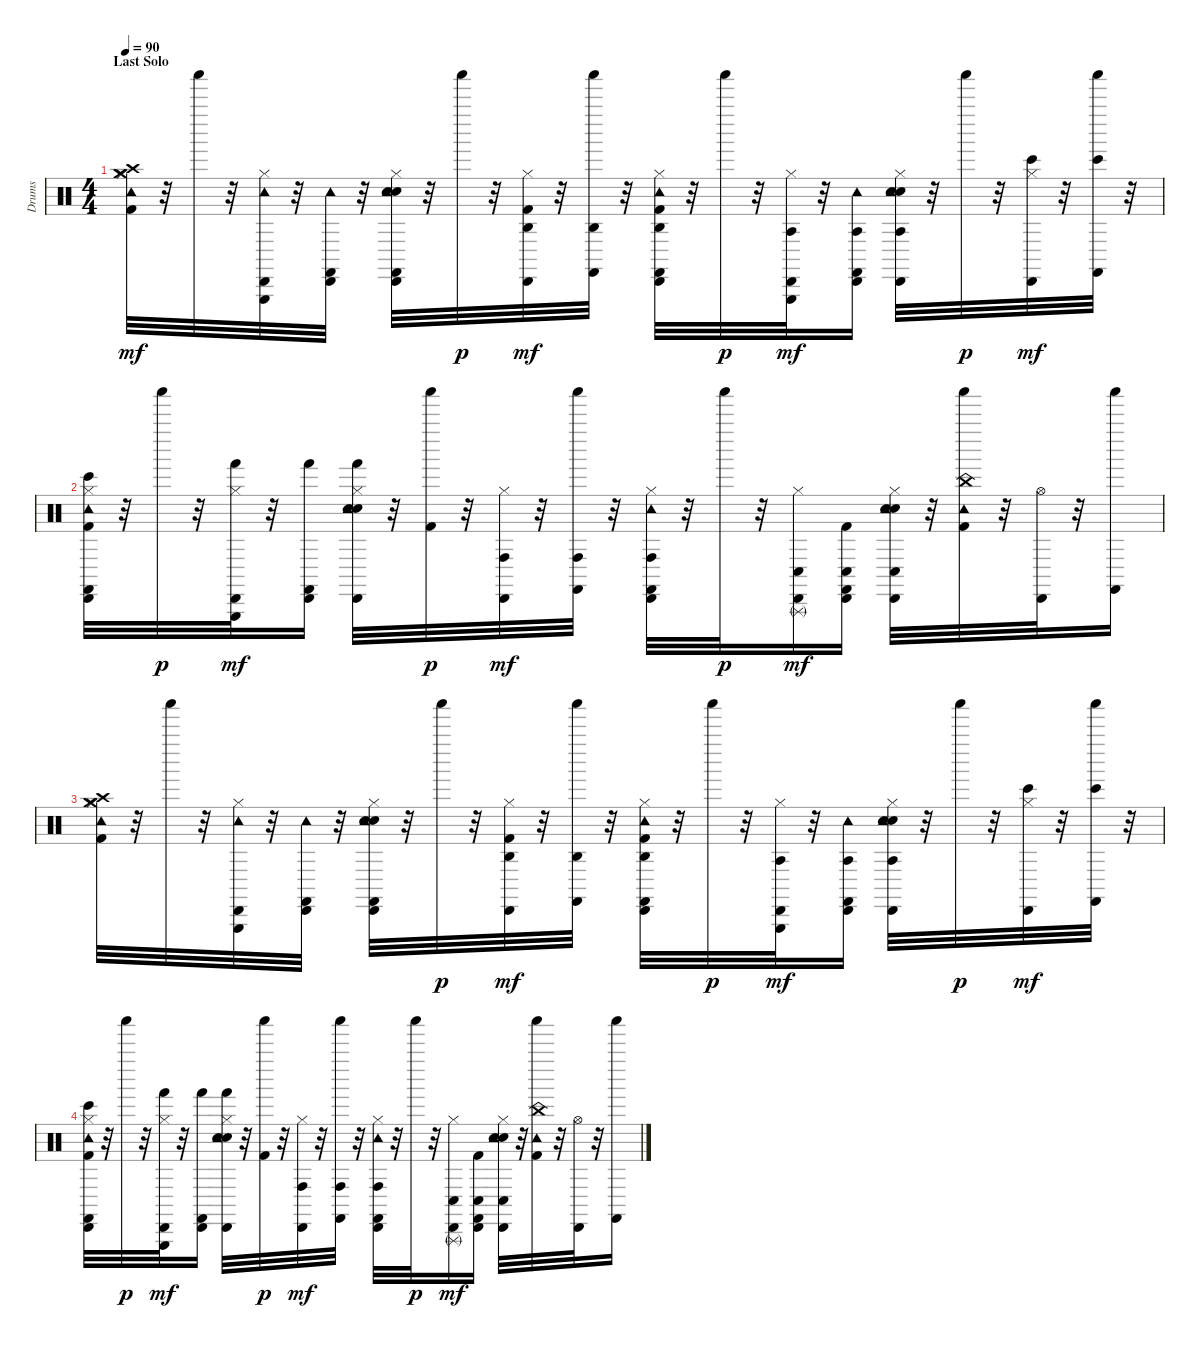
\track ("Drums" "Drums") {instrument percussion}
\staff {score}
\articulation defaults
\ts (4 4)
\section ("" "Last Solo")
\tempo 90
\clef neutral
\ks c
("Hi-Hat (closed)" "Kick (hit) 2" "Tambourine (hit)" "Crash high (hit)" "Crash medium (hit)" "Hi-Hat (closed)").32{dy mf} r.32 "Shaker (hit)".32 r.32 ("Hi-Hat (closed)" "Tambourine (hit)" "Cabasa (hit)" "Triangle (hit)").32 r.32 ("Tambourine (hit)" "Cabasa (hit)" "Castanets (hit)").32 r.32 ("Electric Snare (hit)" "Hi-Hat (closed)" "Snare (hit) 2" "Tambourine (hit)" "Cabasa (hit)" "Castanets (hit)").32 r.32 "Shaker (hit)".32{dy p} r.32 ("Hi-Hat (closed)" "Kick (hit) 2" "Agogo high (hit)" "Cabasa (hit)").32{dy mf} r.32 ("Agogo high (hit)" "Shaker (hit)" "Castanets (hit)").32 r.32 ("Hi-Hat (closed)" "Kick (hit) 2" "Agogo high (hit)" "Cabasa (hit)" "Tambourine (hit)" "Castanets (hit)").32 r.32 "Shaker (hit)".32{dy p} r.32 ("Hi-Hat (closed)" "Agogo tow (hit)" "Cabasa (hit)" "Triangle (hit)").32{dy mf} r.32 ("Agogo tow (hit)" "Cabasa (hit)" "Tambourine (hit)" "Castanets (hit)").16 ("Electric Snare (hit)" "Hi-Hat (closed)" "Snare (hit) 2" "Agogo tow (hit)" "Tambourine (hit)" "Cabasa (hit)").32 r.32 "Shaker (hit)".32{dy p} r.32 ("Hi-Hat (closed)" "Bongo High (hit)" "Cabasa (hit)").32{dy mf} r.32 ("Bongo High (hit)" "Shaker (hit)" "Castanets (hit)").32 r.32 |
("Hi-Hat (closed)" "Kick (hit) 2" "Bongo High (hit)" "Cabasa (hit)" "Tambourine (hit)" "Castanets (hit)").32 r.32 "Shaker (hit)".32{dy p} r.32 ("Hi-Hat (closed)" "Hand (hit)" "Cabasa (hit)" "Triangle (hit)").32{dy mf} r.32 ("Hand (hit)" "Cabasa (hit)" "Castanets (hit)").16 ("Electric Snare (hit)" "Hi-Hat (closed)" "Snare (hit) 2" "Hand (hit)" "Cabasa (hit)" "Tambourine (hit)").32 r.32 ("Kick (hit) 2" "Shaker (hit)").32{dy p} r.32 ("Hi-Hat (closed)" "Conga high (hit)" "Cabasa (hit)").32{dy mf} r.32 ("Conga high (hit)" "Shaker (hit)" "Castanets (hit)").32 r.32 ("Hi-Hat (closed)" "Conga high (hit)" "Cabasa (hit)" "Tambourine (hit)" "Castanets (hit)").32 r.32 "Shaker (hit)".32{dy p} r.32 ("Hi-Hat (closed)" "Conga low (hit)" "Cabasa (hit)" "Triangle (rnute)").16{dy mf} ("Kick (hit) 2" "Conga low (hit)" "Cabasa (hit)" "Castanets (hit)").16 ("Electric Snare (hit)" "Hi-Hat (closed)" "Snare (hit) 2" "Conga low (hit)" "Cabasa (hit)" "Tambourine (hit)").32 r.32 ("Kick (hit) 2" "Tambourine (hit)" "Shaker (hit)" "China (hit)").32 r.32 ("Hi-Hat (open)" "Cabasa (hit)").32 r.32 ("Shaker (hit)" "Castanets (hit)").16 |
("Hi-Hat (closed)" "Kick (hit) 2" "Tambourine (hit)" "Crash high (hit)" "Crash medium (hit)" "Hi-Hat (closed)").32 r.32 "Shaker (hit)".32 r.32 ("Hi-Hat (closed)" "Tambourine (hit)" "Cabasa (hit)" "Triangle (hit)").32 r.32 ("Tambourine (hit)" "Cabasa (hit)" "Castanets (hit)").32 r.32 ("Electric Snare (hit)" "Hi-Hat (closed)" "Snare (hit) 2" "Tambourine (hit)" "Cabasa (hit)" "Castanets (hit)").32 r.32 "Shaker (hit)".32{dy p} r.32 ("Hi-Hat (closed)" "Kick (hit) 2" "Agogo high (hit)" "Cabasa (hit)").32{dy mf} r.32 ("Agogo high (hit)" "Shaker (hit)" "Castanets (hit)").32 r.32 ("Hi-Hat (closed)" "Kick (hit) 2" "Agogo high (hit)" "Cabasa (hit)" "Tambourine (hit)" "Castanets (hit)").32 r.32 "Shaker (hit)".32{dy p} r.32 ("Hi-Hat (closed)" "Agogo tow (hit)" "Cabasa (hit)" "Triangle (hit)").32{dy mf} r.32 ("Agogo tow (hit)" "Cabasa (hit)" "Tambourine (hit)" "Castanets (hit)").16 ("Electric Snare (hit)" "Hi-Hat (closed)" "Snare (hit) 2" "Agogo tow (hit)" "Tambourine (hit)" "Cabasa (hit)").32 r.32 "Shaker (hit)".32{dy p} r.32 ("Hi-Hat (closed)" "Bongo High (hit)" "Cabasa (hit)").32{dy mf} r.32 ("Bongo High (hit)" "Shaker (hit)" "Castanets (hit)").32 r.32 |
("Hi-Hat (closed)" "Kick (hit) 2" "Bongo High (hit)" "Cabasa (hit)" "Tambourine (hit)" "Castanets (hit)").32 r.32 "Shaker (hit)".32{dy p} r.32 ("Hi-Hat (closed)" "Hand (hit)" "Cabasa (hit)" "Triangle (hit)").32{dy mf} r.32 ("Hand (hit)" "Cabasa (hit)" "Castanets (hit)").16 ("Electric Snare (hit)" "Hi-Hat (closed)" "Snare (hit) 2" "Hand (hit)" "Cabasa (hit)" "Tambourine (hit)").32 r.32 ("Kick (hit) 2" "Shaker (hit)").32{dy p} r.32 ("Hi-Hat (closed)" "Conga high (hit)" "Cabasa (hit)").32{dy mf} r.32 ("Conga high (hit)" "Shaker (hit)" "Castanets (hit)").32 r.32 ("Hi-Hat (closed)" "Conga high (hit)" "Cabasa (hit)" "Tambourine (hit)" "Castanets (hit)").32 r.32 "Shaker (hit)".32{dy p} r.32 ("Hi-Hat (closed)" "Conga low (hit)" "Cabasa (hit)" "Triangle (rnute)").16{dy mf} ("Kick (hit) 2" "Conga low (hit)" "Cabasa (hit)" "Castanets (hit)").16 ("Electric Snare (hit)" "Hi-Hat (closed)" "Snare (hit) 2" "Conga low (hit)" "Cabasa (hit)" "Tambourine (hit)").32 r.32 ("Kick (hit) 2" "Tambourine (hit)" "Shaker (hit)" "China (hit)").32 r.32 ("Hi-Hat (open)" "Cabasa (hit)").32 r.32 ("Shaker (hit)" "Castanets (hit)").16
